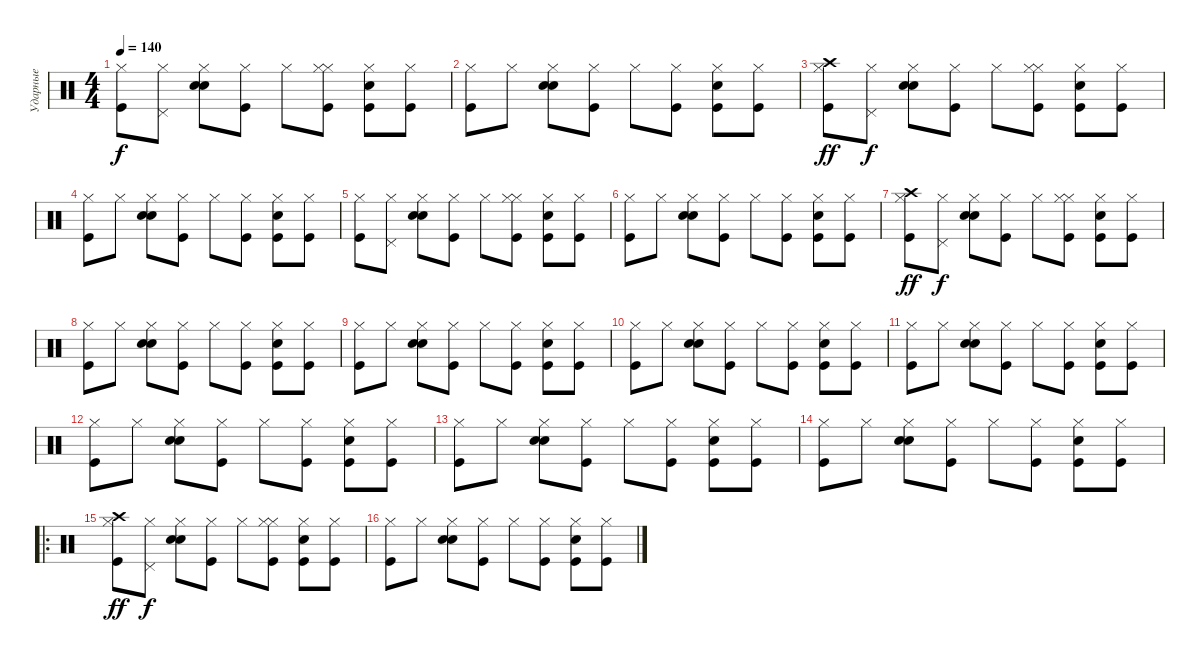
\track ("Ударные" "Ударные") {instrument percussion}
\staff {score}
\articulation defaults
\ts (4 4)
\tempo 140
\clef neutral
\ks c
("Hi-Hat (closed)" "Kick (hit)").8{dy f} ("Hi-Hat (closed)" "Pedal Hi-Hat (hit)").8 ("Hi-Hat (closed)" "Snare (hit) 2" "Snare (hit) 2").8 ("Hi-Hat (closed)" "Kick (hit)").8 "Hi-Hat (closed)".8 ("Hi-Hat (closed)" "Hi-Hat (closed)" "Kick (hit)").8 ("Hi-Hat (closed)" "Snare (hit) 2" "Kick (hit)").8 ("Hi-Hat (closed)" "Kick (hit)").8 |
("Hi-Hat (closed)" "Kick (hit)").8 "Hi-Hat (closed)".8 ("Hi-Hat (closed)" "Snare (hit) 2" "Snare (hit) 2").8 ("Hi-Hat (closed)" "Kick (hit)").8 "Hi-Hat (closed)".8 ("Hi-Hat (closed)" "Kick (hit)").8 ("Hi-Hat (closed)" "Snare (hit) 2" "Kick (hit)").8 ("Hi-Hat (closed)" "Kick (hit)").8 |
("Crash high (hit)" "Hi-Hat (closed)" "Kick (hit)").8{dy ff} ("Hi-Hat (closed)" "Pedal Hi-Hat (hit)").8{dy f} ("Hi-Hat (closed)" "Snare (hit) 2" "Snare (hit) 2").8 ("Hi-Hat (closed)" "Kick (hit)").8 "Hi-Hat (closed)".8 ("Hi-Hat (closed)" "Hi-Hat (closed)" "Kick (hit)").8 ("Hi-Hat (closed)" "Snare (hit) 2" "Kick (hit)").8 ("Hi-Hat (closed)" "Kick (hit)").8 |
("Hi-Hat (closed)" "Kick (hit)").8 "Hi-Hat (closed)".8 ("Hi-Hat (closed)" "Snare (hit) 2" "Snare (hit) 2").8 ("Hi-Hat (closed)" "Kick (hit)").8 "Hi-Hat (closed)".8 ("Hi-Hat (closed)" "Kick (hit)").8 ("Hi-Hat (closed)" "Snare (hit) 2" "Kick (hit)").8 ("Hi-Hat (closed)" "Kick (hit)").8 |
("Hi-Hat (closed)" "Kick (hit)").8 ("Hi-Hat (closed)" "Pedal Hi-Hat (hit)").8 ("Hi-Hat (closed)" "Snare (hit) 2" "Snare (hit) 2").8 ("Hi-Hat (closed)" "Kick (hit)").8 "Hi-Hat (closed)".8 ("Hi-Hat (closed)" "Hi-Hat (closed)" "Kick (hit)").8 ("Hi-Hat (closed)" "Snare (hit) 2" "Kick (hit)").8 ("Hi-Hat (closed)" "Kick (hit)").8 |
("Hi-Hat (closed)" "Kick (hit)").8 "Hi-Hat (closed)".8 ("Hi-Hat (closed)" "Snare (hit) 2" "Snare (hit) 2").8 ("Hi-Hat (closed)" "Kick (hit)").8 "Hi-Hat (closed)".8 ("Hi-Hat (closed)" "Kick (hit)").8 ("Hi-Hat (closed)" "Snare (hit) 2" "Kick (hit)").8 ("Hi-Hat (closed)" "Kick (hit)").8 |
("Crash high (hit)" "Hi-Hat (closed)" "Kick (hit)").8{dy ff} ("Hi-Hat (closed)" "Pedal Hi-Hat (hit)").8{dy f} ("Hi-Hat (closed)" "Snare (hit) 2" "Snare (hit) 2").8 ("Hi-Hat (closed)" "Kick (hit)").8 "Hi-Hat (closed)".8 ("Hi-Hat (closed)" "Hi-Hat (closed)" "Kick (hit)").8 ("Hi-Hat (closed)" "Snare (hit) 2" "Kick (hit)").8 ("Hi-Hat (closed)" "Kick (hit)").8 |
("Hi-Hat (closed)" "Kick (hit)").8 "Hi-Hat (closed)".8 ("Hi-Hat (closed)" "Snare (hit) 2" "Snare (hit) 2").8 ("Hi-Hat (closed)" "Kick (hit)").8 "Hi-Hat (closed)".8 ("Hi-Hat (closed)" "Kick (hit)").8 ("Hi-Hat (closed)" "Snare (hit) 2" "Kick (hit)").8 ("Hi-Hat (closed)" "Kick (hit)").8 |
("Hi-Hat (closed)" "Kick (hit)").8 "Hi-Hat (closed)".8 ("Hi-Hat (closed)" "Snare (hit) 2" "Snare (hit) 2").8 ("Hi-Hat (closed)" "Kick (hit)").8 "Hi-Hat (closed)".8 ("Hi-Hat (closed)" "Kick (hit)").8 ("Hi-Hat (closed)" "Snare (hit) 2" "Kick (hit)").8 ("Hi-Hat (closed)" "Kick (hit)").8 |
("Hi-Hat (closed)" "Kick (hit)").8 "Hi-Hat (closed)".8 ("Hi-Hat (closed)" "Snare (hit) 2" "Snare (hit) 2").8 ("Hi-Hat (closed)" "Kick (hit)").8 "Hi-Hat (closed)".8 ("Hi-Hat (closed)" "Kick (hit)").8 ("Hi-Hat (closed)" "Snare (hit) 2" "Kick (hit)").8 ("Hi-Hat (closed)" "Kick (hit)").8 |
("Hi-Hat (closed)" "Kick (hit)").8 "Hi-Hat (closed)".8 ("Hi-Hat (closed)" "Snare (hit) 2" "Snare (hit) 2").8 ("Hi-Hat (closed)" "Kick (hit)").8 "Hi-Hat (closed)".8 ("Hi-Hat (closed)" "Kick (hit)").8 ("Hi-Hat (closed)" "Snare (hit) 2" "Kick (hit)").8 ("Hi-Hat (closed)" "Kick (hit)").8 |
("Hi-Hat (closed)" "Kick (hit)").8 "Hi-Hat (closed)".8 ("Hi-Hat (closed)" "Snare (hit) 2" "Snare (hit) 2").8 ("Hi-Hat (closed)" "Kick (hit)").8 "Hi-Hat (closed)".8 ("Hi-Hat (closed)" "Kick (hit)").8 ("Hi-Hat (closed)" "Snare (hit) 2" "Kick (hit)").8 ("Hi-Hat (closed)" "Kick (hit)").8 |
("Hi-Hat (closed)" "Kick (hit)").8 "Hi-Hat (closed)".8 ("Hi-Hat (closed)" "Snare (hit) 2" "Snare (hit) 2").8 ("Hi-Hat (closed)" "Kick (hit)").8 "Hi-Hat (closed)".8 ("Hi-Hat (closed)" "Kick (hit)").8 ("Hi-Hat (closed)" "Snare (hit) 2" "Kick (hit)").8 ("Hi-Hat (closed)" "Kick (hit)").8 |
("Hi-Hat (closed)" "Kick (hit)").8 "Hi-Hat (closed)".8 ("Hi-Hat (closed)" "Snare (hit) 2" "Snare (hit) 2").8 ("Hi-Hat (closed)" "Kick (hit)").8 "Hi-Hat (closed)".8 ("Hi-Hat (closed)" "Kick (hit)").8 ("Hi-Hat (closed)" "Snare (hit) 2" "Kick (hit)").8 ("Hi-Hat (closed)" "Kick (hit)").8 |
\ro
("Crash high (hit)" "Hi-Hat (closed)" "Kick (hit)").8{dy ff} ("Hi-Hat (closed)" "Pedal Hi-Hat (hit)").8{dy f} ("Hi-Hat (closed)" "Snare (hit) 2" "Snare (hit) 2").8 ("Hi-Hat (closed)" "Kick (hit)").8 "Hi-Hat (closed)".8 ("Hi-Hat (closed)" "Hi-Hat (closed)" "Kick (hit)").8 ("Hi-Hat (closed)" "Snare (hit) 2" "Kick (hit)").8 ("Hi-Hat (closed)" "Kick (hit)").8 |
("Hi-Hat (closed)" "Kick (hit)").8 "Hi-Hat (closed)".8 ("Hi-Hat (closed)" "Snare (hit) 2" "Snare (hit) 2").8 ("Hi-Hat (closed)" "Kick (hit)").8 "Hi-Hat (closed)".8 ("Hi-Hat (closed)" "Kick (hit)").8 ("Hi-Hat (closed)" "Snare (hit) 2" "Kick (hit)").8 ("Hi-Hat (closed)" "Kick (hit)").8
